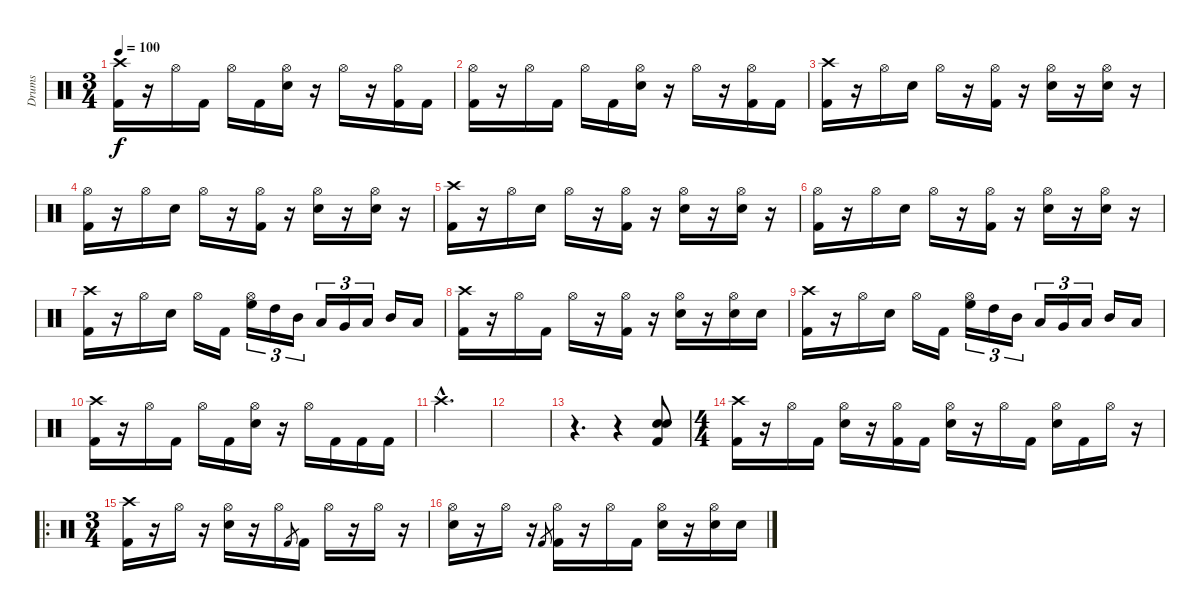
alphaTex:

\track ("Drums" "Drums") {instrument percussion}
\staff {score}
\articulation defaults
\ts (3 4)
\tempo 100
\clef neutral
\ks c
("Crash high (hit)" "Kick (hit) 2").16{dy f} r.16 "Hi-Hat (open)".16 "Kick (hit) 2".16 "Hi-Hat (open)".16 "Kick (hit) 2".16 ("Hi-Hat (open)" "Snare (hit) 2").16 r.16 "Hi-Hat (open)".16 r.16 ("Hi-Hat (open)" "Kick (hit) 2").16 "Kick (hit) 2".16 |
("Hi-Hat (open)" "Kick (hit) 2").16 r.16 "Hi-Hat (open)".16 "Kick (hit) 2".16 "Hi-Hat (open)".16 "Kick (hit) 2".16 ("Hi-Hat (open)" "Snare (hit) 2").16 r.16 "Hi-Hat (open)".16 r.16 ("Hi-Hat (open)" "Kick (hit) 2").16 "Kick (hit) 2".16 |
("Crash high (hit)" "Kick (hit) 2").16 r.16 "Hi-Hat (open)".16 "Snare (hit) 2".16 "Hi-Hat (open)".16 r.16 ("Hi-Hat (open)" "Kick (hit) 2").16 r.16 ("Hi-Hat (open)" "Snare (hit) 2").16 r.16 ("Hi-Hat (open)" "Snare (hit) 2").16 r.16 |
("Hi-Hat (open)" "Kick (hit) 2").16 r.16 "Hi-Hat (open)".16 "Snare (hit) 2".16 "Hi-Hat (open)".16 r.16 ("Hi-Hat (open)" "Kick (hit) 2").16 r.16 ("Hi-Hat (open)" "Snare (hit) 2").16 r.16 ("Hi-Hat (open)" "Snare (hit) 2").16 r.16 |
("Crash high (hit)" "Kick (hit) 2").16 r.16 "Hi-Hat (open)".16 "Snare (hit) 2".16 "Hi-Hat (open)".16 r.16 ("Hi-Hat (open)" "Kick (hit) 2").16 r.16 ("Hi-Hat (open)" "Snare (hit) 2").16 r.16 ("Hi-Hat (open)" "Snare (hit) 2").16 r.16 |
("Hi-Hat (open)" "Kick (hit) 2").16 r.16 "Hi-Hat (open)".16 "Snare (hit) 2".16 "Hi-Hat (open)".16 r.16 ("Hi-Hat (open)" "Kick (hit) 2").16 r.16 ("Hi-Hat (open)" "Snare (hit) 2").16 r.16 ("Hi-Hat (open)" "Snare (hit) 2").16 r.16 |
("Crash high (hit)" "Kick (hit) 2").16 r.16 "Hi-Hat (open)".16 "Snare (hit) 2".16 "Hi-Hat (open)".16 "Kick (hit) 2".16 ("Hi-Hat (open)" "High Floor Tom (hit)").16{tu (3 2)} "High Tom (hit)".16{tu (3 2)} "Mid Tom (hit)".16{tu (3 2)} "Low Tom (hit)".16{tu (3 2)} "Very Low Tom (hit)".16{tu (3 2)} "Low Floor Tom (hit)".16{tu (3 2)} "Mid Tom (hit)".16 "Low Tom (hit)".16 |
("Crash high (hit)" "Kick (hit) 2").16 r.16 "Hi-Hat (open)".16 "Kick (hit) 2".16 "Hi-Hat (open)".16 r.16 ("Hi-Hat (open)" "Kick (hit) 2").16 r.16 ("Hi-Hat (open)" "Snare (hit) 2").16 r.16 ("Hi-Hat (open)" "Snare (hit) 2").16 "Snare (hit) 2".16 |
("Crash high (hit)" "Kick (hit) 2").16 r.16 "Hi-Hat (open)".16 "Snare (hit) 2".16 "Hi-Hat (open)".16 "Kick (hit) 2".16 ("Hi-Hat (open)" "High Floor Tom (hit)").16{tu (3 2)} "High Tom (hit)".16{tu (3 2)} "Mid Tom (hit)".16{tu (3 2)} "Low Tom (hit)".16{tu (3 2)} "Very Low Tom (hit)".16{tu (3 2)} "Low Floor Tom (hit)".16{tu (3 2)} "Mid Tom (hit)".16 "Low Tom (hit)".16 |
("Crash high (hit)" "Kick (hit) 2").16 r.16 "Hi-Hat (open)".16 "Kick (hit) 2".16 "Hi-Hat (open)".16 "Kick (hit) 2".16 ("Hi-Hat (open)" "Snare (hit) 2").16 r.16 "Hi-Hat (open)".16 "Kick (hit) 2".16 "Kick (hit) 2".16 "Kick (hit) 2".16 |
"Crash high (hit)"{hac}.2{d} |
|
r.4{d} r.4 ("Kick (hit) 2" "Snare (hit) 2" "Snare (hit) 2").8 |
\ts (4 4)
("Crash high (hit)" "Kick (hit) 2").16 r.16 "Hi-Hat (open)".16 "Kick (hit) 2".16 ("Hi-Hat (open)" "Snare (hit) 2").16 r.16 ("Hi-Hat (open)" "Kick (hit) 2").16 "Kick (hit) 2".16 ("Hi-Hat (open)" "Snare (hit) 2").16 r.16 "Hi-Hat (open)".16 "Kick (hit) 2".16 ("Hi-Hat (open)" "Snare (hit) 2").16 "Kick (hit) 2".16 "Hi-Hat (open)".16 r.16 |
\ro
\ts (3 4)
("Crash high (hit)" "Kick (hit) 2").16 r.16 "Hi-Hat (open)".16 r.16 ("Hi-Hat (open)" "Snare (hit) 2").16 r.16 "Hi-Hat (open)".16 "Kick (hit) 2".8{gr} "Kick (hit) 2".16 "Hi-Hat (open)".16 r.16 "Hi-Hat (open)".16 r.16 |
("Hi-Hat (open)" "Snare (hit) 2").16 r.16 "Hi-Hat (open)".16 r.16 "Kick (hit) 2".8{gr} ("Hi-Hat (open)" "Kick (hit) 2").16 r.16 "Hi-Hat (open)".16 "Kick (hit) 2".16 ("Hi-Hat (open)" "Snare (hit) 2").16 r.16 ("Hi-Hat (open)" "Snare (hit) 2").16 "Snare (hit) 2".16
